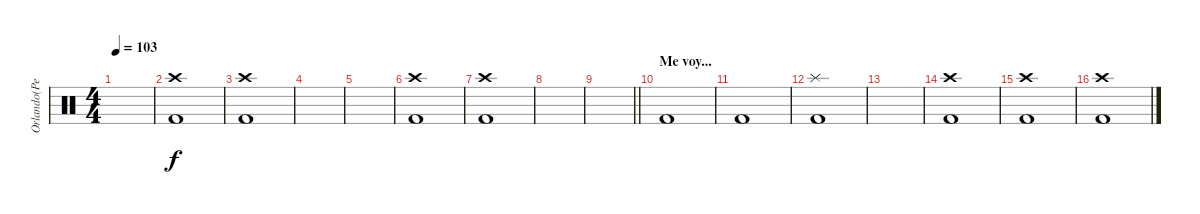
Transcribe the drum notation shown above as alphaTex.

\track ("Orlando(Percusión)" "Orlando(Pe") {instrument percussion}
\staff {score}
\articulation defaults
\ts (4 4)
\tempo 103
\clef neutral
\ks c
|
("Crash high (hit)" "Kick (hit) 2").1 |
("Crash high (hit)" "Kick (hit) 2").1 |
|
|
("Crash high (hit)" "Kick (hit) 2").1 |
("Crash high (hit)" "Kick (hit) 2").1 |
|
\barLineRight lightlight
|
\section ("" "Me voy...")
"Kick (hit) 2".1 |
"Kick (hit) 2".1 |
("Splash (hit)" "Kick (hit) 2").1 |
|
("Crash high (hit)" "Kick (hit) 2").1 |
("Crash high (hit)" "Kick (hit) 2").1 |
("Crash high (hit)" "Kick (hit) 2").1
